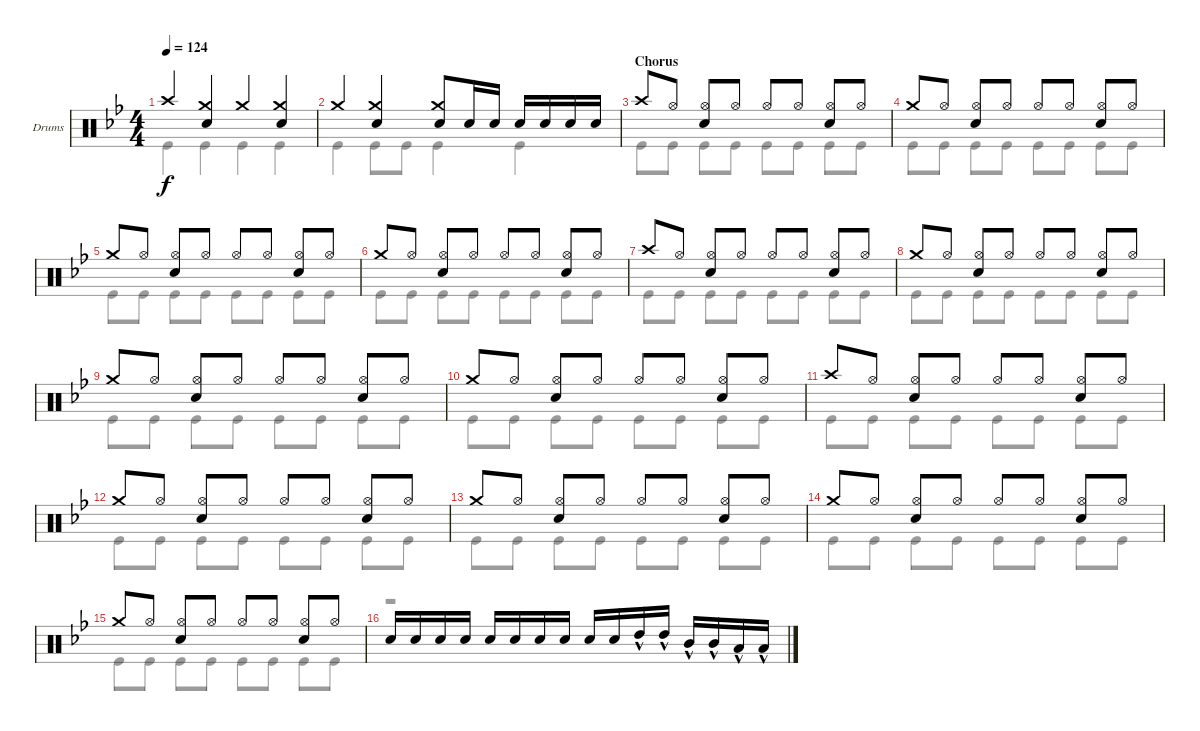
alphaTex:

\defaultSystemsLayout 4
\bracketExtendMode groupsimilarinstruments
\firstSystemTrackNameOrientation horizontal
\otherSystemsTrackNameOrientation horizontal
\track ("Drums" "Drums") {instrument percussion}
\staff {score}
\articulation defaults
\voice
\ts (4 4)
\tempo 124
\clef neutral
\ks gminor "Crash high (hit)".4{dy f}
("Crash medium (hit)" "Snare (hit) 2").4 "Crash medium (hit)".4 ("Crash medium (hit)" "Snare (hit) 2").4 |
"Crash medium (hit)".4 ("Crash medium (hit)" "Snare (hit) 2").4 ("Crash medium (hit)" "Snare (hit) 2").8 "Snare (hit) 2".16 "Snare (hit) 2".16 "Snare (hit) 2".16 "Snare (hit) 2".16 "Snare (hit) 2".16 "Snare (hit) 2".16 |
\section ("" "Chorus")
"Crash high (hit)".8 "Hi-Hat (open)".8 ("Hi-Hat (open)" "Snare (hit) 2").8 "Hi-Hat (open)".8 "Hi-Hat (open)".8 "Hi-Hat (open)".8 ("Hi-Hat (open)" "Snare (hit) 2").8 "Hi-Hat (open)".8 |
"Crash medium (hit)".8 "Hi-Hat (open)".8 ("Hi-Hat (open)" "Snare (hit) 2").8 "Hi-Hat (open)".8 "Hi-Hat (open)".8 "Hi-Hat (open)".8 ("Hi-Hat (open)" "Snare (hit) 2").8 "Hi-Hat (open)".8 |
"Crash medium (hit)".8 "Hi-Hat (open)".8 ("Hi-Hat (open)" "Snare (hit) 2").8 "Hi-Hat (open)".8 "Hi-Hat (open)".8 "Hi-Hat (open)".8 ("Hi-Hat (open)" "Snare (hit) 2").8 "Hi-Hat (open)".8 |
"Crash medium (hit)".8 "Hi-Hat (open)".8 ("Hi-Hat (open)" "Snare (hit) 2").8 "Hi-Hat (open)".8 "Hi-Hat (open)".8 "Hi-Hat (open)".8 ("Hi-Hat (open)" "Snare (hit) 2").8 "Hi-Hat (open)".8 |
"Crash high (hit)".8 "Hi-Hat (open)".8 ("Hi-Hat (open)" "Snare (hit) 2").8 "Hi-Hat (open)".8 "Hi-Hat (open)".8 "Hi-Hat (open)".8 ("Hi-Hat (open)" "Snare (hit) 2").8 "Hi-Hat (open)".8 |
"Crash medium (hit)".8 "Hi-Hat (open)".8 ("Hi-Hat (open)" "Snare (hit) 2").8 "Hi-Hat (open)".8 "Hi-Hat (open)".8 "Hi-Hat (open)".8 ("Hi-Hat (open)" "Snare (hit) 2").8 "Hi-Hat (open)".8 |
"Crash medium (hit)".8 "Hi-Hat (open)".8 ("Hi-Hat (open)" "Snare (hit) 2").8 "Hi-Hat (open)".8 "Hi-Hat (open)".8 "Hi-Hat (open)".8 ("Hi-Hat (open)" "Snare (hit) 2").8 "Hi-Hat (open)".8 |
"Crash medium (hit)".8 "Hi-Hat (open)".8 ("Hi-Hat (open)" "Snare (hit) 2").8 "Hi-Hat (open)".8 "Hi-Hat (open)".8 "Hi-Hat (open)".8 ("Hi-Hat (open)" "Snare (hit) 2").8 "Hi-Hat (open)".8 |
"Crash high (hit)".8 "Hi-Hat (open)".8 ("Hi-Hat (open)" "Snare (hit) 2").8 "Hi-Hat (open)".8 "Hi-Hat (open)".8 "Hi-Hat (open)".8 ("Hi-Hat (open)" "Snare (hit) 2").8 "Hi-Hat (open)".8 |
"Crash medium (hit)".8 "Hi-Hat (open)".8 ("Hi-Hat (open)" "Snare (hit) 2").8 "Hi-Hat (open)".8 "Hi-Hat (open)".8 "Hi-Hat (open)".8 ("Hi-Hat (open)" "Snare (hit) 2").8 "Hi-Hat (open)".8 |
"Crash medium (hit)".8 "Hi-Hat (open)".8 ("Hi-Hat (open)" "Snare (hit) 2").8 "Hi-Hat (open)".8 "Hi-Hat (open)".8 "Hi-Hat (open)".8 ("Hi-Hat (open)" "Snare (hit) 2").8 "Hi-Hat (open)".8 |
"Crash medium (hit)".8 "Hi-Hat (open)".8 ("Hi-Hat (open)" "Snare (hit) 2").8 "Hi-Hat (open)".8 "Hi-Hat (open)".8 "Hi-Hat (open)".8 ("Hi-Hat (open)" "Snare (hit) 2").8 "Hi-Hat (open)".8 |
"Crash medium (hit)".8 "Hi-Hat (open)".8 ("Hi-Hat (open)" "Snare (hit) 2").8 "Hi-Hat (open)".8 "Hi-Hat (open)".8 "Hi-Hat (open)".8 ("Hi-Hat (open)" "Snare (hit) 2").8 "Hi-Hat (open)".8 |
"Snare (hit) 2".16 "Snare (hit) 2".16 "Snare (hit) 2".16 "Snare (hit) 2".16 "Snare (hit) 2".16 "Snare (hit) 2".16 "Snare (hit) 2".16 "Snare (hit) 2".16 "Snare (hit) 2".16 "Snare (hit) 2".16 "High Tom (hit)"{hac}.16 "High Tom (hit)"{hac}.16 "Mid Tom (hit)"{hac}.16 "Mid Tom (hit)"{hac}.16 "Low Tom (hit)"{hac}.16 "Low Tom (hit)"{hac}.16
\voice
\clef neutral
\ottava regular
\simile none
\ks gminor "Kick (hit)".4{dy f} "Kick (hit)".4 "Kick (hit)".4 "Kick (hit)".4
|
"Kick (hit)".4 "Kick (hit)".8 "Kick (hit)".8 "Kick (hit)".4 "Kick (hit)".4 |
"Kick (hit)".8 "Kick (hit)".8 "Kick (hit)".8 "Kick (hit)".8 "Kick (hit)".8 "Kick (hit)".8 "Kick (hit)".8 "Kick (hit)".8 |
"Kick (hit)".8 "Kick (hit)".8 "Kick (hit)".8 "Kick (hit)".8 "Kick (hit)".8 "Kick (hit)".8 "Kick (hit)".8 "Kick (hit)".8 |
"Kick (hit)".8 "Kick (hit)".8 "Kick (hit)".8 "Kick (hit)".8 "Kick (hit)".8 "Kick (hit)".8 "Kick (hit)".8 "Kick (hit)".8 |
"Kick (hit)".8 "Kick (hit)".8 "Kick (hit)".8 "Kick (hit)".8 "Kick (hit)".8 "Kick (hit)".8 "Kick (hit)".8 "Kick (hit)".8 |
"Kick (hit)".8 "Kick (hit)".8 "Kick (hit)".8 "Kick (hit)".8 "Kick (hit)".8 "Kick (hit)".8 "Kick (hit)".8 "Kick (hit)".8 |
"Kick (hit)".8 "Kick (hit)".8 "Kick (hit)".8 "Kick (hit)".8 "Kick (hit)".8 "Kick (hit)".8 "Kick (hit)".8 "Kick (hit)".8 |
"Kick (hit)".8 "Kick (hit)".8 "Kick (hit)".8 "Kick (hit)".8 "Kick (hit)".8 "Kick (hit)".8 "Kick (hit)".8 "Kick (hit)".8 |
"Kick (hit)".8 "Kick (hit)".8 "Kick (hit)".8 "Kick (hit)".8 "Kick (hit)".8 "Kick (hit)".8 "Kick (hit)".8 "Kick (hit)".8 |
"Kick (hit)".8 "Kick (hit)".8 "Kick (hit)".8 "Kick (hit)".8 "Kick (hit)".8 "Kick (hit)".8 "Kick (hit)".8 "Kick (hit)".8 |
"Kick (hit)".8 "Kick (hit)".8 "Kick (hit)".8 "Kick (hit)".8 "Kick (hit)".8 "Kick (hit)".8 "Kick (hit)".8 "Kick (hit)".8 |
"Kick (hit)".8 "Kick (hit)".8 "Kick (hit)".8 "Kick (hit)".8 "Kick (hit)".8 "Kick (hit)".8 "Kick (hit)".8 "Kick (hit)".8 |
"Kick (hit)".8 "Kick (hit)".8 "Kick (hit)".8 "Kick (hit)".8 "Kick (hit)".8 "Kick (hit)".8 "Kick (hit)".8 "Kick (hit)".8 |
"Kick (hit)".8 "Kick (hit)".8 "Kick (hit)".8 "Kick (hit)".8 "Kick (hit)".8 "Kick (hit)".8 "Kick (hit)".8 "Kick (hit)".8 |
r.1
